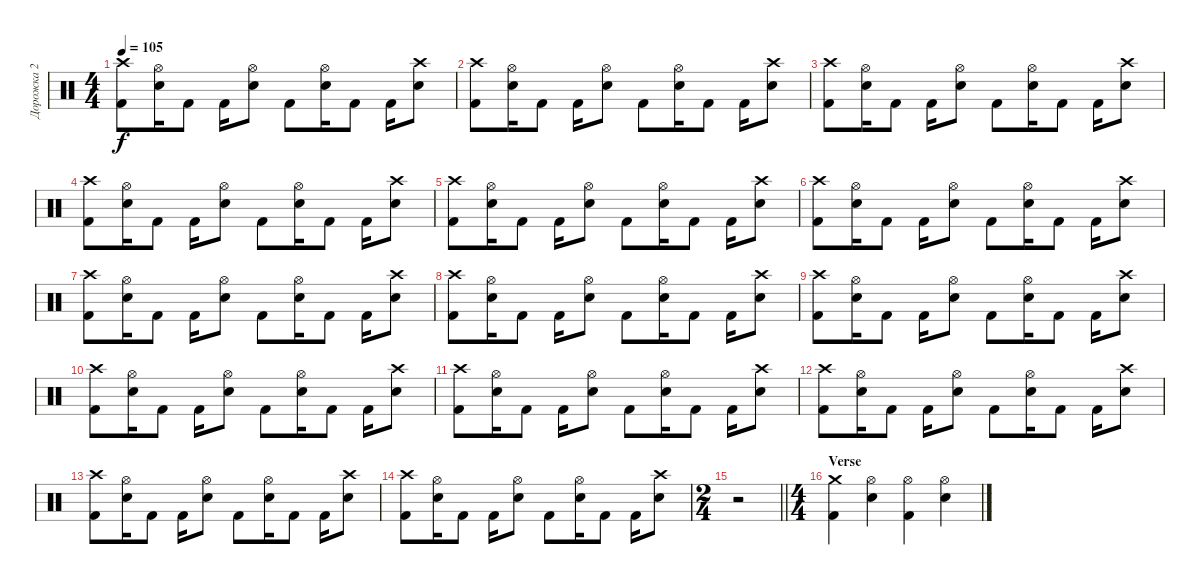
\track ("Дорожка 2" "Дорожка 2") {instrument percussion}
\staff {score}
\articulation defaults
\ts (4 4)
\tempo 105
\clef neutral
\ks c
("Kick (hit) 2" "Crash high (hit)").8{dy f} ("Snare (hit) 2" "Hi-Hat (open)").16 "Kick (hit) 2".8 "Kick (hit) 2".16 ("Snare (hit) 2" "Hi-Hat (open)").8 "Kick (hit) 2".8 ("Snare (hit) 2" "Hi-Hat (open)").16 "Kick (hit) 2".8 "Kick (hit) 2".16 ("Snare (hit) 2" "Crash high (hit)").8 |
("Kick (hit) 2" "Crash high (hit)").8 ("Snare (hit) 2" "Hi-Hat (open)").16 "Kick (hit) 2".8 "Kick (hit) 2".16 ("Snare (hit) 2" "Hi-Hat (open)").8 "Kick (hit) 2".8 ("Snare (hit) 2" "Hi-Hat (open)").16 "Kick (hit) 2".8 "Kick (hit) 2".16 ("Snare (hit) 2" "Crash high (hit)").8 |
("Kick (hit) 2" "Crash high (hit)").8 ("Snare (hit) 2" "Hi-Hat (open)").16 "Kick (hit) 2".8 "Kick (hit) 2".16 ("Snare (hit) 2" "Hi-Hat (open)").8 "Kick (hit) 2".8 ("Snare (hit) 2" "Hi-Hat (open)").16 "Kick (hit) 2".8 "Kick (hit) 2".16 ("Snare (hit) 2" "Crash high (hit)").8 |
("Kick (hit) 2" "Crash high (hit)").8 ("Snare (hit) 2" "Hi-Hat (open)").16 "Kick (hit) 2".8 "Kick (hit) 2".16 ("Snare (hit) 2" "Hi-Hat (open)").8 "Kick (hit) 2".8 ("Snare (hit) 2" "Hi-Hat (open)").16 "Kick (hit) 2".8 "Kick (hit) 2".16 ("Snare (hit) 2" "Crash high (hit)").8 |
("Kick (hit) 2" "Crash high (hit)").8 ("Snare (hit) 2" "Hi-Hat (open)").16 "Kick (hit) 2".8 "Kick (hit) 2".16 ("Snare (hit) 2" "Hi-Hat (open)").8 "Kick (hit) 2".8 ("Snare (hit) 2" "Hi-Hat (open)").16 "Kick (hit) 2".8 "Kick (hit) 2".16 ("Snare (hit) 2" "Crash high (hit)").8 |
("Kick (hit) 2" "Crash high (hit)").8 ("Snare (hit) 2" "Hi-Hat (open)").16 "Kick (hit) 2".8 "Kick (hit) 2".16 ("Snare (hit) 2" "Hi-Hat (open)").8 "Kick (hit) 2".8 ("Snare (hit) 2" "Hi-Hat (open)").16 "Kick (hit) 2".8 "Kick (hit) 2".16 ("Snare (hit) 2" "Crash high (hit)").8 |
("Kick (hit) 2" "Crash high (hit)").8 ("Snare (hit) 2" "Hi-Hat (open)").16 "Kick (hit) 2".8 "Kick (hit) 2".16 ("Snare (hit) 2" "Hi-Hat (open)").8 "Kick (hit) 2".8 ("Snare (hit) 2" "Hi-Hat (open)").16 "Kick (hit) 2".8 "Kick (hit) 2".16 ("Snare (hit) 2" "Crash high (hit)").8 |
("Kick (hit) 2" "Crash high (hit)").8 ("Snare (hit) 2" "Hi-Hat (open)").16 "Kick (hit) 2".8 "Kick (hit) 2".16 ("Snare (hit) 2" "Hi-Hat (open)").8 "Kick (hit) 2".8 ("Snare (hit) 2" "Hi-Hat (open)").16 "Kick (hit) 2".8 "Kick (hit) 2".16 ("Snare (hit) 2" "Crash high (hit)").8 |
("Kick (hit) 2" "Crash high (hit)").8 ("Snare (hit) 2" "Hi-Hat (open)").16 "Kick (hit) 2".8 "Kick (hit) 2".16 ("Snare (hit) 2" "Hi-Hat (open)").8 "Kick (hit) 2".8 ("Snare (hit) 2" "Hi-Hat (open)").16 "Kick (hit) 2".8 "Kick (hit) 2".16 ("Snare (hit) 2" "Crash high (hit)").8 |
("Kick (hit) 2" "Crash high (hit)").8 ("Snare (hit) 2" "Hi-Hat (open)").16 "Kick (hit) 2".8 "Kick (hit) 2".16 ("Snare (hit) 2" "Hi-Hat (open)").8 "Kick (hit) 2".8 ("Snare (hit) 2" "Hi-Hat (open)").16 "Kick (hit) 2".8 "Kick (hit) 2".16 ("Snare (hit) 2" "Crash high (hit)").8 |
("Kick (hit) 2" "Crash high (hit)").8 ("Snare (hit) 2" "Hi-Hat (open)").16 "Kick (hit) 2".8 "Kick (hit) 2".16 ("Snare (hit) 2" "Hi-Hat (open)").8 "Kick (hit) 2".8 ("Snare (hit) 2" "Hi-Hat (open)").16 "Kick (hit) 2".8 "Kick (hit) 2".16 ("Snare (hit) 2" "Crash high (hit)").8 |
("Kick (hit) 2" "Crash high (hit)").8 ("Snare (hit) 2" "Hi-Hat (open)").16 "Kick (hit) 2".8 "Kick (hit) 2".16 ("Snare (hit) 2" "Hi-Hat (open)").8 "Kick (hit) 2".8 ("Snare (hit) 2" "Hi-Hat (open)").16 "Kick (hit) 2".8 "Kick (hit) 2".16 ("Snare (hit) 2" "Crash high (hit)").8 |
("Kick (hit) 2" "Crash high (hit)").8 ("Snare (hit) 2" "Hi-Hat (open)").16 "Kick (hit) 2".8 "Kick (hit) 2".16 ("Snare (hit) 2" "Hi-Hat (open)").8 "Kick (hit) 2".8 ("Snare (hit) 2" "Hi-Hat (open)").16 "Kick (hit) 2".8 "Kick (hit) 2".16 ("Snare (hit) 2" "Crash high (hit)").8 |
("Kick (hit) 2" "Crash high (hit)").8 ("Snare (hit) 2" "Hi-Hat (open)").16 "Kick (hit) 2".8 "Kick (hit) 2".16 ("Snare (hit) 2" "Hi-Hat (open)").8 "Kick (hit) 2".8 ("Snare (hit) 2" "Hi-Hat (open)").16 "Kick (hit) 2".8 "Kick (hit) 2".16 ("Snare (hit) 2" "Crash high (hit)").8 |
\ts (2 4)
\barLineRight lightlight
r.2 |
\ts (4 4)
\section ("" "Verse")
("Crash medium (hit)" "Kick (hit) 2").4 ("Snare (hit) 2" "Hi-Hat (open)").4 ("Hi-Hat (open)" "Kick (hit) 2").4 ("Snare (hit) 2" "Hi-Hat (open)").4
